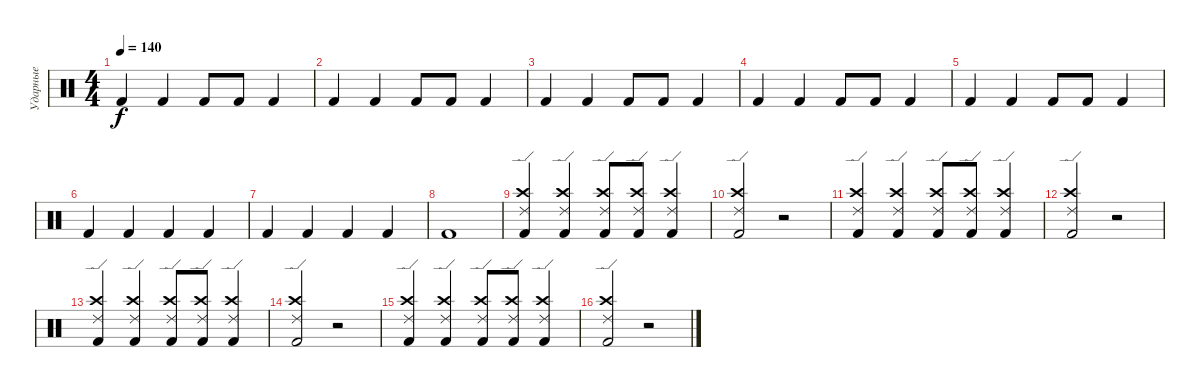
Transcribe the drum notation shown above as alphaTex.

\track ("Ударные" "Ударные") {instrument percussion}
\staff {score}
\articulation defaults
\ts (4 4)
\tempo 140
\clef neutral
\ks c "Kick (hit) 2".4{dy f} "Kick (hit) 2".4 "Kick (hit) 2".8 "Kick (hit) 2".8 "Kick (hit) 2".4
|
"Kick (hit) 2".4 "Kick (hit) 2".4 "Kick (hit) 2".8 "Kick (hit) 2".8 "Kick (hit) 2".4 |
"Kick (hit) 2".4 "Kick (hit) 2".4 "Kick (hit) 2".8 "Kick (hit) 2".8 "Kick (hit) 2".4 |
"Kick (hit) 2".4 "Kick (hit) 2".4 "Kick (hit) 2".8 "Kick (hit) 2".8 "Kick (hit) 2".4 |
"Kick (hit) 2".4 "Kick (hit) 2".4 "Kick (hit) 2".8 "Kick (hit) 2".8 "Kick (hit) 2".4 |
"Kick (hit) 2".4 "Kick (hit) 2".4 "Kick (hit) 2".4 "Kick (hit) 2".4 |
"Kick (hit) 2".4 "Kick (hit) 2".4 "Kick (hit) 2".4 "Kick (hit) 2".4 |
"Kick (hit) 2".1 |
("Crash high (hit)" "Ride (edge) 2" "Kick (hit) 2").4 ("Crash high (hit)" "Ride (edge) 2" "Kick (hit) 2").4 ("Crash high (hit)" "Ride (edge) 2" "Kick (hit) 2").8 ("Crash high (hit)" "Ride (edge) 2" "Kick (hit) 2").8 ("Crash high (hit)" "Ride (edge) 2" "Kick (hit) 2").4 |
("Crash high (hit)" "Ride (edge) 2" "Kick (hit) 2").2 r.2 |
("Crash high (hit)" "Ride (edge) 2" "Kick (hit) 2").4 ("Crash high (hit)" "Ride (edge) 2" "Kick (hit) 2").4 ("Crash high (hit)" "Ride (edge) 2" "Kick (hit) 2").8 ("Crash high (hit)" "Ride (edge) 2" "Kick (hit) 2").8 ("Crash high (hit)" "Ride (edge) 2" "Kick (hit) 2").4 |
("Crash high (hit)" "Ride (edge) 2" "Kick (hit) 2").2 r.2 |
("Crash high (hit)" "Ride (edge) 2" "Kick (hit) 2").4 ("Crash high (hit)" "Ride (edge) 2" "Kick (hit) 2").4 ("Crash high (hit)" "Ride (edge) 2" "Kick (hit) 2").8 ("Crash high (hit)" "Ride (edge) 2" "Kick (hit) 2").8 ("Crash high (hit)" "Ride (edge) 2" "Kick (hit) 2").4 |
("Crash high (hit)" "Ride (edge) 2" "Kick (hit) 2").2 r.2 |
("Crash high (hit)" "Ride (edge) 2" "Kick (hit) 2").4 ("Crash high (hit)" "Ride (edge) 2" "Kick (hit) 2").4 ("Crash high (hit)" "Ride (edge) 2" "Kick (hit) 2").8 ("Crash high (hit)" "Ride (edge) 2" "Kick (hit) 2").8 ("Crash high (hit)" "Ride (edge) 2" "Kick (hit) 2").4 |
("Crash high (hit)" "Ride (edge) 2" "Kick (hit) 2").2 r.2
